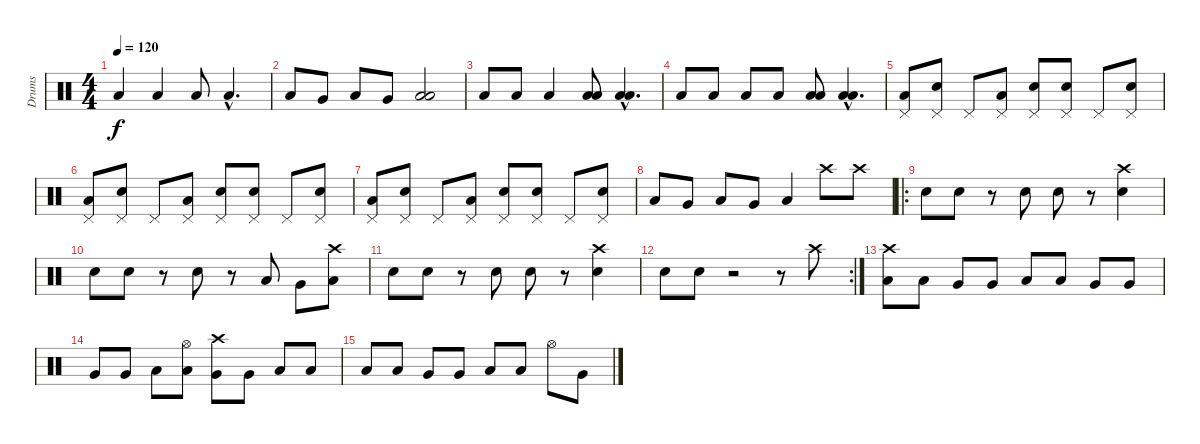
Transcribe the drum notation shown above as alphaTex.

\track ("Drums" "Drums") {instrument percussion}
\staff {score}
\articulation defaults
\ts (4 4)
\tempo 120
\clef neutral
\ks c "Low Floor Tom (hit)".4{dy f} "Low Floor Tom (hit)".4 "Low Tom (hit)".8 "Low Tom (hit)"{hac}.4{d}
|
"Low Tom (hit)".8 "Very Low Tom (hit)".8 "Low Tom (hit)".8 "Very Low Tom (hit)".8 ("Low Tom (hit)" "Low Floor Tom (hit)").2 |
"Low Floor Tom (hit)".8 "Low Tom (hit)".8 "Low Tom (hit)".4 ("Low Tom (hit)" "Low Floor Tom (hit)").8 ("Low Tom (hit)"{hac} "Low Floor Tom (hit)"{hac}).4{d} |
"Low Floor Tom (hit)".8 "Low Tom (hit)".8 "Low Tom (hit)".8 "Low Floor Tom (hit)".8 ("Low Tom (hit)" "Low Floor Tom (hit)").8 ("Low Tom (hit)"{hac} "Low Floor Tom (hit)"{hac}).4{d} |
("Pedal Hi-Hat (hit)" "Low Tom (hit)").8 ("Pedal Hi-Hat (hit)" "Snare (hit) 2").8 "Pedal Hi-Hat (hit)".8 ("Pedal Hi-Hat (hit)" "Low Tom (hit)").8 ("Pedal Hi-Hat (hit)" "Snare (hit) 2").8 ("Pedal Hi-Hat (hit)" "Snare (hit) 2").8 "Pedal Hi-Hat (hit)".8 ("Pedal Hi-Hat (hit)" "Snare (hit) 2").8 |
("Pedal Hi-Hat (hit)" "Low Tom (hit)").8 ("Pedal Hi-Hat (hit)" "Snare (hit) 2").8 "Pedal Hi-Hat (hit)".8 ("Pedal Hi-Hat (hit)" "Low Tom (hit)").8 ("Pedal Hi-Hat (hit)" "Snare (hit) 2").8 ("Pedal Hi-Hat (hit)" "Snare (hit) 2").8 "Pedal Hi-Hat (hit)".8 ("Pedal Hi-Hat (hit)" "Snare (hit) 2").8 |
("Pedal Hi-Hat (hit)" "Low Tom (hit)").8 ("Pedal Hi-Hat (hit)" "Snare (hit) 2").8 "Pedal Hi-Hat (hit)".8 ("Pedal Hi-Hat (hit)" "Low Tom (hit)").8 ("Pedal Hi-Hat (hit)" "Snare (hit) 2").8 ("Pedal Hi-Hat (hit)" "Snare (hit) 2").8 "Pedal Hi-Hat (hit)".8 ("Pedal Hi-Hat (hit)" "Snare (hit) 2").8 |
"Low Tom (hit)".8 "Very Low Tom (hit)".8 "Low Floor Tom (hit)".8 "Very Low Tom (hit)".8 "Low Tom (hit)".4 "Crash high (hit)".8 "Crash high (hit)".8 |
\ro "Snare (hit) 2".8 "Snare (hit) 2".8
r.8 "Snare (hit) 2".8 "Snare (hit) 2".8 r.8 ("Electric Snare (hit)" "Crash high (hit)").4 |
"Snare (hit) 2".8 "Snare (hit) 2".8 r.8 "Snare (hit) 2".8 r.8 "Low Tom (hit)".8 "Very Low Tom (hit)".8 ("Low Floor Tom (hit)" "Crash high (hit)").8 |
"Snare (hit) 2".8 "Snare (hit) 2".8 r.8 "Snare (hit) 2".8 "Snare (hit) 2".8 r.8 ("Electric Snare (hit)" "Crash high (hit)").4 |
\rc 2 "Snare (hit) 2".8 "Snare (hit) 2".8
r.2 r.8 "Crash high (hit)".8 |
("Crash high (hit)" "Low Tom (hit)").8 "Low Tom (hit)".8 "Very Low Tom (hit)".8 "Very Low Tom (hit)".8 "Low Tom (hit)".8 "Low Tom (hit)".8 "Very Low Tom (hit)".8 "Very Low Tom (hit)".8 |
"Very Low Tom (hit)".8 "Very Low Tom (hit)".8 "Low Tom (hit)".8 ("Hi-Hat (open)" "Low Tom (hit)").8 ("Crash high (hit)" "Very Low Tom (hit)").8 "Very Low Tom (hit)".8 "Low Tom (hit)".8 "Low Tom (hit)".8 |
"Low Tom (hit)".8 "Low Tom (hit)".8 "Very Low Tom (hit)".8 "Very Low Tom (hit)".8 "Low Tom (hit)".8 "Low Tom (hit)".8 "Hi-Hat (open)".8 "Very Low Tom (hit)".8
